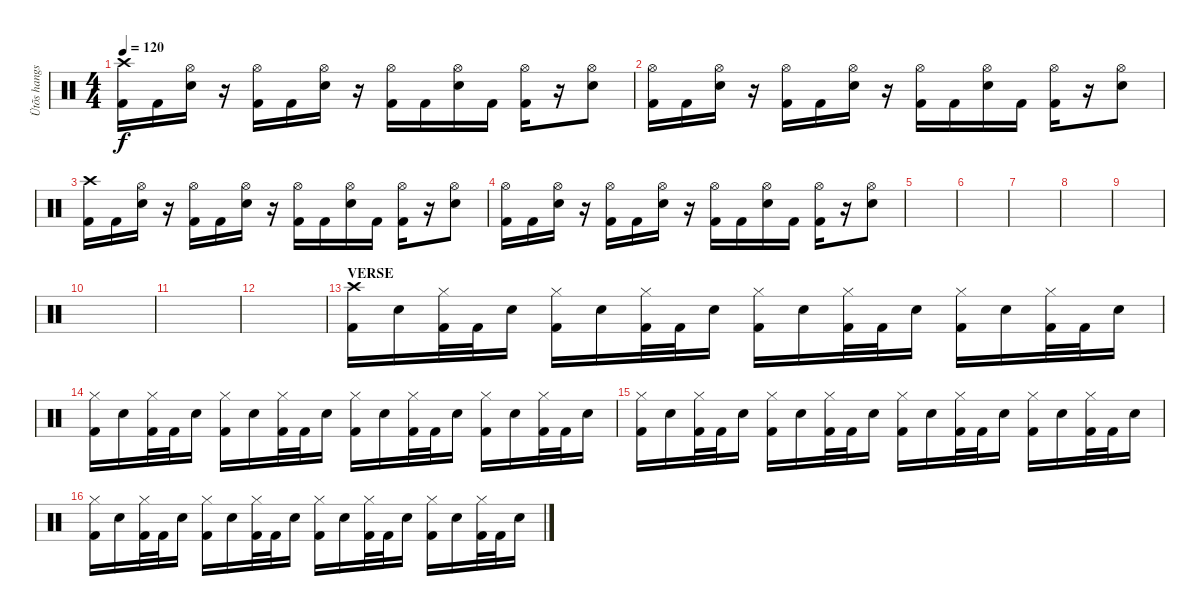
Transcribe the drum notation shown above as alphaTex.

\track ("Ütõs hangszer" "Ütõs hangs") {instrument percussion}
\staff {score}
\articulation defaults
\ts (4 4)
\tempo 120
\clef neutral
\ks c
("Crash high (hit)" "Kick (hit) 2").16{dy f} "Kick (hit) 2".16 ("Hi-Hat (open)" "Snare (hit) 2").16 r.16 ("Hi-Hat (open)" "Kick (hit) 2").16 "Kick (hit) 2".16 ("Hi-Hat (open)" "Snare (hit) 2").16 r.16 ("Hi-Hat (open)" "Kick (hit) 2").16 "Kick (hit) 2".16 ("Hi-Hat (open)" "Snare (hit) 2").16 "Kick (hit) 2".16 ("Hi-Hat (open)" "Kick (hit) 2").16 r.16 ("Hi-Hat (open)" "Snare (hit) 2").8 |
("Hi-Hat (open)" "Kick (hit) 2").16 "Kick (hit) 2".16 ("Hi-Hat (open)" "Snare (hit) 2").16 r.16 ("Hi-Hat (open)" "Kick (hit) 2").16 "Kick (hit) 2".16 ("Hi-Hat (open)" "Snare (hit) 2").16 r.16 ("Hi-Hat (open)" "Kick (hit) 2").16 "Kick (hit) 2".16 ("Hi-Hat (open)" "Snare (hit) 2").16 "Kick (hit) 2".16 ("Hi-Hat (open)" "Kick (hit) 2").16 r.16 ("Hi-Hat (open)" "Snare (hit) 2").8 |
("Crash high (hit)" "Kick (hit) 2").16 "Kick (hit) 2".16 ("Hi-Hat (open)" "Snare (hit) 2").16 r.16 ("Hi-Hat (open)" "Kick (hit) 2").16 "Kick (hit) 2".16 ("Hi-Hat (open)" "Snare (hit) 2").16 r.16 ("Hi-Hat (open)" "Kick (hit) 2").16 "Kick (hit) 2".16 ("Hi-Hat (open)" "Snare (hit) 2").16 "Kick (hit) 2".16 ("Hi-Hat (open)" "Kick (hit) 2").16 r.16 ("Hi-Hat (open)" "Snare (hit) 2").8 |
("Hi-Hat (open)" "Kick (hit) 2").16 "Kick (hit) 2".16 ("Hi-Hat (open)" "Snare (hit) 2").16 r.16 ("Hi-Hat (open)" "Kick (hit) 2").16 "Kick (hit) 2".16 ("Hi-Hat (open)" "Snare (hit) 2").16 r.16 ("Hi-Hat (open)" "Kick (hit) 2").16 "Kick (hit) 2".16 ("Hi-Hat (open)" "Snare (hit) 2").16 "Kick (hit) 2".16 ("Hi-Hat (open)" "Kick (hit) 2").16 r.16 ("Hi-Hat (open)" "Snare (hit) 2").8 |
|
|
|
|
|
|
|
|
\section ("" "VERSE")
("Crash high (hit)" "Kick (hit) 2").16 "Snare (hit) 2".16 ("Hi-Hat (closed)" "Kick (hit) 2").32 "Kick (hit) 2".32 "Snare (hit) 2".16 ("Hi-Hat (closed)" "Kick (hit) 2").16 "Snare (hit) 2".16 ("Hi-Hat (closed)" "Kick (hit) 2").32 "Kick (hit) 2".32 "Snare (hit) 2".16 ("Hi-Hat (closed)" "Kick (hit) 2").16 "Snare (hit) 2".16 ("Hi-Hat (closed)" "Kick (hit) 2").32 "Kick (hit) 2".32 "Snare (hit) 2".16 ("Hi-Hat (closed)" "Kick (hit) 2").16 "Snare (hit) 2".16 ("Hi-Hat (closed)" "Kick (hit) 2").32 "Kick (hit) 2".32 "Snare (hit) 2".16 |
("Hi-Hat (closed)" "Kick (hit) 2").16 "Snare (hit) 2".16 ("Hi-Hat (closed)" "Kick (hit) 2").32 "Kick (hit) 2".32 "Snare (hit) 2".16 ("Hi-Hat (closed)" "Kick (hit) 2").16 "Snare (hit) 2".16 ("Hi-Hat (closed)" "Kick (hit) 2").32 "Kick (hit) 2".32 "Snare (hit) 2".16 ("Hi-Hat (closed)" "Kick (hit) 2").16 "Snare (hit) 2".16 ("Hi-Hat (closed)" "Kick (hit) 2").32 "Kick (hit) 2".32 "Snare (hit) 2".16 ("Hi-Hat (closed)" "Kick (hit) 2").16 "Snare (hit) 2".16 ("Hi-Hat (closed)" "Kick (hit) 2").32 "Kick (hit) 2".32 "Snare (hit) 2".16 |
("Hi-Hat (closed)" "Kick (hit) 2").16 "Snare (hit) 2".16 ("Hi-Hat (closed)" "Kick (hit) 2").32 "Kick (hit) 2".32 "Snare (hit) 2".16 ("Hi-Hat (closed)" "Kick (hit) 2").16 "Snare (hit) 2".16 ("Hi-Hat (closed)" "Kick (hit) 2").32 "Kick (hit) 2".32 "Snare (hit) 2".16 ("Hi-Hat (closed)" "Kick (hit) 2").16 "Snare (hit) 2".16 ("Hi-Hat (closed)" "Kick (hit) 2").32 "Kick (hit) 2".32 "Snare (hit) 2".16 ("Hi-Hat (closed)" "Kick (hit) 2").16 "Snare (hit) 2".16 ("Hi-Hat (closed)" "Kick (hit) 2").32 "Kick (hit) 2".32 "Snare (hit) 2".16 |
("Hi-Hat (closed)" "Kick (hit) 2").16 "Snare (hit) 2".16 ("Hi-Hat (closed)" "Kick (hit) 2").32 "Kick (hit) 2".32 "Snare (hit) 2".16 ("Hi-Hat (closed)" "Kick (hit) 2").16 "Snare (hit) 2".16 ("Hi-Hat (closed)" "Kick (hit) 2").32 "Kick (hit) 2".32 "Snare (hit) 2".16 ("Hi-Hat (closed)" "Kick (hit) 2").16 "Snare (hit) 2".16 ("Hi-Hat (closed)" "Kick (hit) 2").32 "Kick (hit) 2".32 "Snare (hit) 2".16 ("Hi-Hat (closed)" "Kick (hit) 2").16 "Snare (hit) 2".16 ("Hi-Hat (closed)" "Kick (hit) 2").32 "Kick (hit) 2".32 "Snare (hit) 2".16
